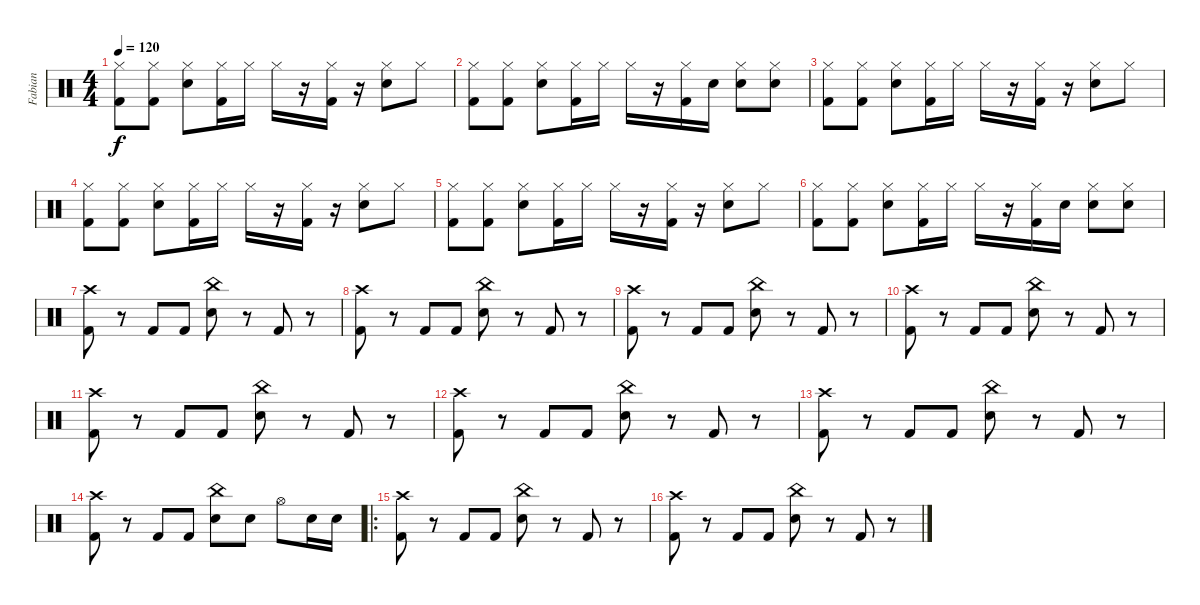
\track ("Fabian" "Fabian") {instrument percussion}
\staff {score}
\articulation defaults
\ts (4 4)
\tempo 120
\clef neutral
\ks c
("Hi-Hat (closed)" "Kick (hit) 2").8{dy f} ("Hi-Hat (closed)" "Kick (hit) 2").8 ("Hi-Hat (closed)" "Electric Snare (hit)").8 ("Hi-Hat (closed)" "Kick (hit) 2").16 "Hi-Hat (closed)".16 "Hi-Hat (closed)".16 r.16 ("Hi-Hat (closed)" "Kick (hit) 2").16 r.16 ("Hi-Hat (closed)" "Electric Snare (hit)").8 "Hi-Hat (closed)".8 |
("Hi-Hat (closed)" "Kick (hit) 2").8 ("Hi-Hat (closed)" "Kick (hit) 2").8 ("Hi-Hat (closed)" "Electric Snare (hit)").8 ("Hi-Hat (closed)" "Kick (hit) 2").16 "Hi-Hat (closed)".16 "Hi-Hat (closed)".16 r.16 ("Hi-Hat (closed)" "Kick (hit) 2").16 "Electric Snare (hit)".16 ("Hi-Hat (closed)" "Electric Snare (hit)").8 ("Hi-Hat (closed)" "Electric Snare (hit)").8 |
("Hi-Hat (closed)" "Kick (hit) 2").8 ("Hi-Hat (closed)" "Kick (hit) 2").8 ("Hi-Hat (closed)" "Electric Snare (hit)").8 ("Hi-Hat (closed)" "Kick (hit) 2").16 "Hi-Hat (closed)".16 "Hi-Hat (closed)".16 r.16 ("Hi-Hat (closed)" "Kick (hit) 2").16 r.16 ("Hi-Hat (closed)" "Electric Snare (hit)").8 "Hi-Hat (closed)".8 |
("Hi-Hat (closed)" "Kick (hit) 2").8 ("Hi-Hat (closed)" "Kick (hit) 2").8 ("Hi-Hat (closed)" "Electric Snare (hit)").8 ("Hi-Hat (closed)" "Kick (hit) 2").16 "Hi-Hat (closed)".16 "Hi-Hat (closed)".16 r.16 ("Hi-Hat (closed)" "Kick (hit) 2").16 r.16 ("Hi-Hat (closed)" "Electric Snare (hit)").8 "Hi-Hat (closed)".8 |
("Hi-Hat (closed)" "Kick (hit) 2").8 ("Hi-Hat (closed)" "Kick (hit) 2").8 ("Hi-Hat (closed)" "Electric Snare (hit)").8 ("Hi-Hat (closed)" "Kick (hit) 2").16 "Hi-Hat (closed)".16 "Hi-Hat (closed)".16 r.16 ("Hi-Hat (closed)" "Kick (hit) 2").16 r.16 ("Hi-Hat (closed)" "Electric Snare (hit)").8 "Hi-Hat (closed)".8 |
("Hi-Hat (closed)" "Kick (hit) 2").8 ("Hi-Hat (closed)" "Kick (hit) 2").8 ("Hi-Hat (closed)" "Electric Snare (hit)").8 ("Hi-Hat (closed)" "Kick (hit) 2").16 "Hi-Hat (closed)".16 "Hi-Hat (closed)".16 r.16 ("Hi-Hat (closed)" "Kick (hit) 2").16 "Electric Snare (hit)".16 ("Hi-Hat (closed)" "Electric Snare (hit)").8 ("Hi-Hat (closed)" "Electric Snare (hit)").8 |
("Crash high (hit)" "Kick (hit) 2").8 r.8 "Kick (hit) 2".8 "Kick (hit) 2".8 ("China (hit)" "Snare (hit) 2").8 r.8 "Kick (hit) 2".8 r.8 |
("Crash high (hit)" "Kick (hit) 2").8 r.8 "Kick (hit) 2".8 "Kick (hit) 2".8 ("China (hit)" "Snare (hit) 2").8 r.8 "Kick (hit) 2".8 r.8 |
("Crash high (hit)" "Kick (hit) 2").8 r.8 "Kick (hit) 2".8 "Kick (hit) 2".8 ("China (hit)" "Snare (hit) 2").8 r.8 "Kick (hit) 2".8 r.8 |
("Crash high (hit)" "Kick (hit) 2").8 r.8 "Kick (hit) 2".8 "Kick (hit) 2".8 ("China (hit)" "Snare (hit) 2").8 r.8 "Kick (hit) 2".8 r.8 |
("Crash high (hit)" "Kick (hit) 2").8 r.8 "Kick (hit) 2".8 "Kick (hit) 2".8 ("China (hit)" "Snare (hit) 2").8 r.8 "Kick (hit) 2".8 r.8 |
("Crash high (hit)" "Kick (hit) 2").8 r.8 "Kick (hit) 2".8 "Kick (hit) 2".8 ("China (hit)" "Snare (hit) 2").8 r.8 "Kick (hit) 2".8 r.8 |
("Crash high (hit)" "Kick (hit) 2").8 r.8 "Kick (hit) 2".8 "Kick (hit) 2".8 ("China (hit)" "Snare (hit) 2").8 r.8 "Kick (hit) 2".8 r.8 |
("Crash high (hit)" "Kick (hit) 2").8 r.8 "Kick (hit) 2".8 "Kick (hit) 2".8 ("China (hit)" "Snare (hit) 2").8 "Snare (hit) 2".8 "Hi-Hat (open)".8 "Snare (hit) 2".16 "Snare (hit) 2".16 |
\ro
("Crash high (hit)" "Kick (hit) 2").8 r.8 "Kick (hit) 2".8 "Kick (hit) 2".8 ("China (hit)" "Snare (hit) 2").8 r.8 "Kick (hit) 2".8 r.8 |
("Crash high (hit)" "Kick (hit) 2").8 r.8 "Kick (hit) 2".8 "Kick (hit) 2".8 ("China (hit)" "Snare (hit) 2").8 r.8 "Kick (hit) 2".8 r.8
